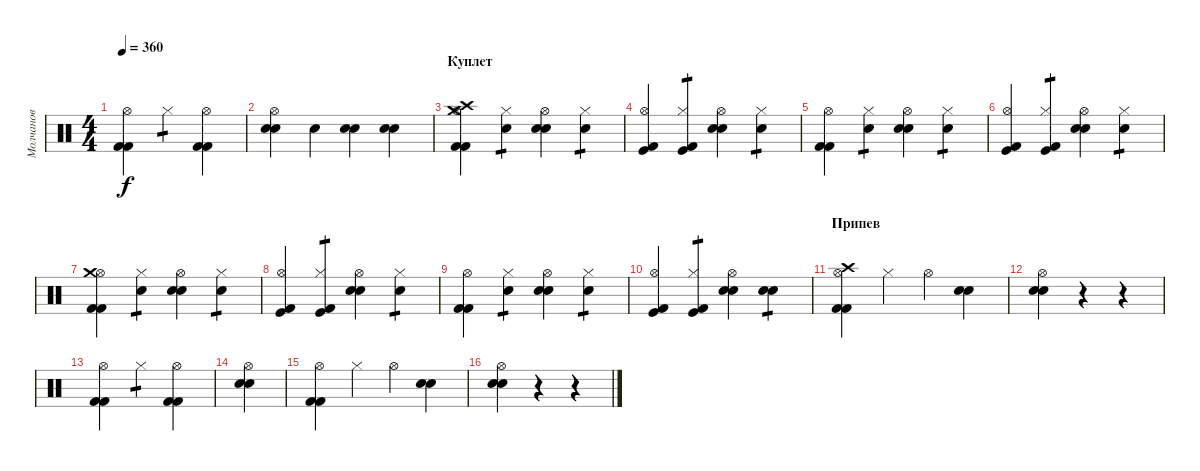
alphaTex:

\track ("Молчанов" "Молчанов") {instrument percussion}
\staff {score}
\articulation defaults
\ts (4 4)
\tempo 360
\clef neutral
\ks c
("Kick (hit) 2" "Kick (hit) 2" "Hi-Hat (open)").4{dy f} "Hi-Hat (closed)".4{tp 1} ("Kick (hit) 2" "Kick (hit) 2" "Hi-Hat (open)").4 |
("Electric Snare (hit)" "Electric Snare (hit)" "Hi-Hat (open)").4 "Snare (hit)"{x}.4 ("Electric Snare (hit)" "Electric Snare (hit)").4 ("Electric Snare (hit)" "Electric Snare (hit)").4 |
\section ("" "Куплет")
("Kick (hit) 2" "Kick (hit) 2" "Hi-Hat (open)" "Crash high (hit)" "Crash medium (hit)").4 ("Snare (hit)"{x} "Hi-Hat (closed)").4{tp 1} ("Electric Snare (hit)" "Electric Snare (hit)" "Hi-Hat (open)").4 ("Snare (hit)"{x} "Hi-Hat (closed)").4{tp 1} |
("Kick (hit) 2" "Kick (hit)" "Hi-Hat (open)").4 ("Kick (hit) 2" "Kick (hit)" "Hi-Hat (closed)").4{tp 1} ("Electric Snare (hit)" "Electric Snare (hit)" "Hi-Hat (open)").4 ("Snare (hit)"{x} "Hi-Hat (closed)").4{tp 1} |
("Kick (hit) 2" "Kick (hit) 2" "Hi-Hat (open)").4 ("Snare (hit)"{x} "Hi-Hat (closed)").4{tp 1} ("Electric Snare (hit)" "Electric Snare (hit)" "Hi-Hat (open)").4 ("Snare (hit)"{x} "Hi-Hat (closed)").4{tp 1} |
("Kick (hit) 2" "Kick (hit)" "Hi-Hat (open)").4 ("Kick (hit) 2" "Kick (hit)" "Hi-Hat (closed)").4{tp 1} ("Electric Snare (hit)" "Electric Snare (hit)" "Hi-Hat (open)").4 ("Snare (hit)"{x} "Hi-Hat (closed)").4{tp 1} |
("Kick (hit) 2" "Kick (hit) 2" "Hi-Hat (open)" "Crash medium (hit)").4 ("Snare (hit)"{x} "Hi-Hat (closed)").4{tp 1} ("Electric Snare (hit)" "Electric Snare (hit)" "Hi-Hat (open)").4 ("Snare (hit)"{x} "Hi-Hat (closed)").4{tp 1} |
("Kick (hit) 2" "Kick (hit)" "Hi-Hat (open)").4 ("Kick (hit) 2" "Kick (hit)" "Hi-Hat (closed)").4{tp 1} ("Electric Snare (hit)" "Electric Snare (hit)" "Hi-Hat (open)").4 ("Snare (hit)"{x} "Hi-Hat (closed)").4{tp 1} |
("Kick (hit) 2" "Kick (hit) 2" "Hi-Hat (open)").4 ("Snare (hit)"{x} "Hi-Hat (closed)").4{tp 1} ("Electric Snare (hit)" "Electric Snare (hit)" "Hi-Hat (open)").4 ("Snare (hit)"{x} "Hi-Hat (closed)").4{tp 1} |
("Kick (hit) 2" "Kick (hit)" "Hi-Hat (open)").4 ("Kick (hit) 2" "Kick (hit)" "Hi-Hat (closed)").4{tp 1} ("Electric Snare (hit)" "Electric Snare (hit)" "Hi-Hat (open)").4 ("Electric Snare (hit)" "Electric Snare (hit)").4{tp 1} |
\section ("" "Припев")
("Kick (hit) 2" "Kick (hit) 2" "Hi-Hat (open)" "Crash high (hit)").4 "Hi-Hat (closed)"{x}.4 "Hi-Hat (open)"{x}.4 ("Snare (hit)"{x} "Snare (hit)"{x}).4 |
("Electric Snare (hit)" "Electric Snare (hit)" "Hi-Hat (open)").4 r.4 r.4 |
("Kick (hit) 2" "Kick (hit) 2" "Hi-Hat (open)").4 "Hi-Hat (closed)".4{tp 1} ("Kick (hit) 2" "Kick (hit) 2" "Hi-Hat (open)").4 |
("Electric Snare (hit)" "Electric Snare (hit)" "Hi-Hat (open)").4 |
("Kick (hit) 2" "Kick (hit) 2" "Hi-Hat (open)").4 "Hi-Hat (closed)"{x}.4 "Hi-Hat (open)"{x}.4 ("Snare (hit)"{x} "Snare (hit)"{x}).4 |
("Electric Snare (hit)" "Electric Snare (hit)" "Hi-Hat (open)").4 r.4 r.4
